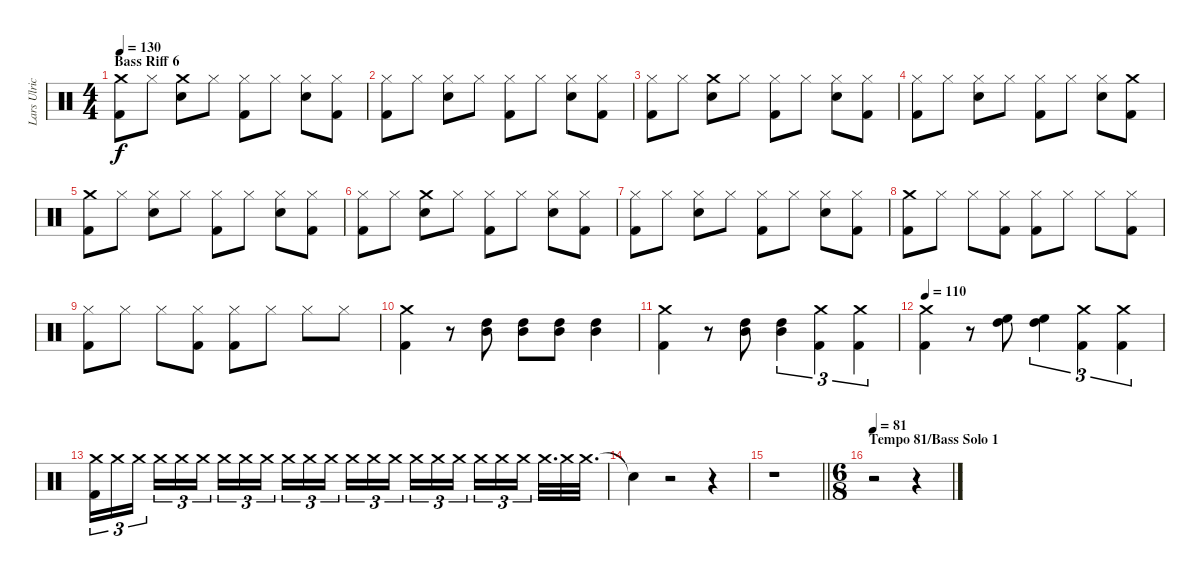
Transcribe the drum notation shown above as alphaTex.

\track ("Lars Ulrich (Drums)" "Lars Ulric") {instrument percussion}
\staff {score}
\articulation defaults
\ts (4 4)
\section ("" "Bass Riff 6")
\tempo 130
\clef neutral
\ks c
("Crash medium (hit)" "Kick (hit) 2").8{dy f} "Hi-Hat (closed)".8 ("Crash medium (hit)" "Snare (hit) 2").8 "Hi-Hat (closed)".8 ("Hi-Hat (closed)" "Kick (hit) 2").8 "Hi-Hat (closed)".8 ("Snare (hit) 2" "Hi-Hat (closed)").8 ("Kick (hit) 2" "Hi-Hat (closed)").8 |
("Hi-Hat (closed)" "Kick (hit) 2").8 "Hi-Hat (closed)".8 ("Snare (hit) 2" "Hi-Hat (closed)").8 "Hi-Hat (closed)".8 ("Hi-Hat (closed)" "Kick (hit) 2").8 "Hi-Hat (closed)".8 ("Snare (hit) 2" "Hi-Hat (closed)").8 ("Hi-Hat (closed)" "Kick (hit) 2").8 |
("Hi-Hat (closed)" "Kick (hit) 2").8 "Hi-Hat (closed)".8 ("Crash medium (hit)" "Snare (hit) 2").8 "Hi-Hat (closed)".8 ("Hi-Hat (closed)" "Kick (hit) 2").8 "Hi-Hat (closed)".8 ("Snare (hit) 2" "Hi-Hat (closed)").8 ("Kick (hit) 2" "Hi-Hat (closed)").8 |
("Kick (hit) 2" "Hi-Hat (closed)").8 "Hi-Hat (closed)".8 ("Snare (hit) 2" "Hi-Hat (closed)").8 "Hi-Hat (closed)".8 ("Kick (hit) 2" "Hi-Hat (closed)").8 "Hi-Hat (closed)".8 ("Snare (hit) 2" "Hi-Hat (closed)").8 ("Crash medium (hit)" "Kick (hit) 2").8 |
("Crash medium (hit)" "Kick (hit) 2").8 "Hi-Hat (closed)".8 ("Snare (hit) 2" "Hi-Hat (closed)").8 "Hi-Hat (closed)".8 ("Hi-Hat (closed)" "Kick (hit) 2").8 "Hi-Hat (closed)".8 ("Snare (hit) 2" "Hi-Hat (closed)").8 ("Kick (hit) 2" "Hi-Hat (closed)").8 |
("Hi-Hat (closed)" "Kick (hit) 2").8 "Hi-Hat (closed)".8 ("Crash medium (hit)" "Snare (hit) 2").8 "Hi-Hat (closed)".8 ("Hi-Hat (closed)" "Kick (hit) 2").8 "Hi-Hat (closed)".8 ("Snare (hit) 2" "Hi-Hat (closed)").8 ("Hi-Hat (closed)" "Kick (hit) 2").8 |
("Hi-Hat (closed)" "Kick (hit) 2").8 "Hi-Hat (closed)".8 ("Hi-Hat (closed)" "Snare (hit) 2").8 "Hi-Hat (closed)".8 ("Hi-Hat (closed)" "Kick (hit) 2").8 "Hi-Hat (closed)".8 ("Snare (hit) 2" "Hi-Hat (closed)").8 ("Kick (hit) 2" "Hi-Hat (closed)").8 |
("Kick (hit) 2" "Crash medium (hit)").8 "Hi-Hat (closed)".8 "Hi-Hat (closed)".8 ("Kick (hit) 2" "Hi-Hat (closed)").8 ("Kick (hit) 2" "Hi-Hat (closed)").8 "Hi-Hat (closed)".8 "Hi-Hat (closed)".8 ("Kick (hit) 2" "Hi-Hat (closed)").8 |
("Hi-Hat (closed)" "Kick (hit) 2").8 "Hi-Hat (closed)".8 "Hi-Hat (closed)".8 ("Kick (hit) 2" "Hi-Hat (closed)").8 ("Hi-Hat (closed)" "Kick (hit) 2").8 "Hi-Hat (closed)".8 "Hi-Hat (closed)".8 "Hi-Hat (closed)".8 |
("Kick (hit) 2" "Crash medium (hit)").4 r.8 ("High Tom (hit)" "Mid Tom (hit)").8 ("High Tom (hit)" "Mid Tom (hit)").8 ("High Tom (hit)" "Mid Tom (hit)").8 ("High Tom (hit)" "Mid Tom (hit)").4 |
("Kick (hit) 2" "Crash medium (hit)").4 r.8 ("Mid Tom (hit)" "High Tom (hit)").8 ("High Tom (hit)" "Mid Tom (hit)").4{tu (3 2)} ("Kick (hit) 2" "Crash medium (hit)").4{tu (3 2)} ("Kick (hit) 2" "Crash medium (hit)").4{tu (3 2)} |
\tempo 110
("Crash medium (hit)" "Kick (hit) 2").4 r.8 ("High Floor Tom (hit)" "High Tom (hit)").8 ("High Tom (hit)" "High Floor Tom (hit)").4{tu (3 2)} ("Kick (hit) 2" "Crash medium (hit)").4{tu (3 2)} ("Kick (hit) 2" "Crash medium (hit)").4{tu (3 2)} |
("Kick (hit) 2" "Crash medium (hit)").16{tu (3 2)} "Crash medium (hit)".16{tu (3 2)} "Crash medium (hit)".16{tu (3 2) beam splitsecondary} "Crash medium (hit)".16{tu (3 2)} "Crash medium (hit)".16{tu (3 2)} "Crash medium (hit)".16{tu (3 2)} "Crash medium (hit)".16{tu (3 2)} "Crash medium (hit)".16{tu (3 2)} "Crash medium (hit)".16{tu (3 2) beam splitsecondary} "Crash medium (hit)".16{tu (3 2)} "Crash medium (hit)".16{tu (3 2)} "Crash medium (hit)".16{tu (3 2)} "Crash medium (hit)".16{tu (3 2)} "Crash medium (hit)".16{tu (3 2)} "Crash medium (hit)".16{tu (3 2) beam splitsecondary} "Crash medium (hit)".16{tu (3 2)} "Crash medium (hit)".16{tu (3 2)} "Crash medium (hit)".16{tu (3 2)} "Crash medium (hit)".16{tu (3 2)} "Crash medium (hit)".16{tu (3 2)} "Crash medium (hit)".16{tu (3 2) beam splitsecondary} "Crash medium (hit)".32{d} "Crash medium (hit)".32 "Crash medium (hit)".32{d} |
"Snare (hit)"{t}.4 r.2 r.4 |
\barLineRight lightlight
r.1 |
\ts (6 8)
\section ("" "Tempo 81/Bass Solo 1")
\tempo 81
r.2 r.4
